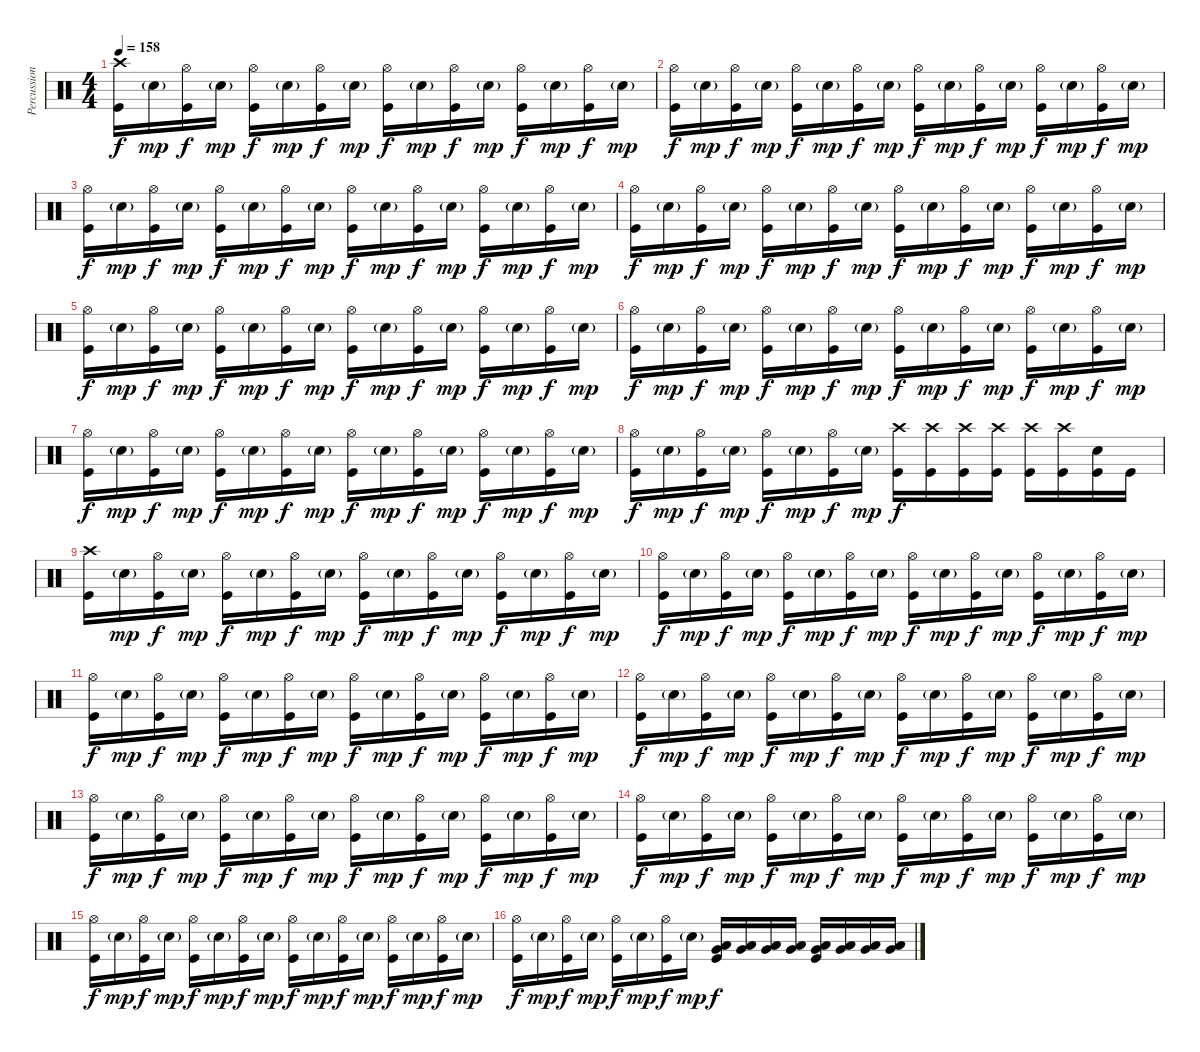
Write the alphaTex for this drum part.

\track ("Percussion" "Percussion") {instrument percussion}
\staff {score}
\articulation defaults
\ts (4 4)
\tempo 158
\clef neutral
\ks c
("Crash high (hit)" "Kick (hit)").16{dy f} "Snare (hit) 2"{g}.16{dy mp} ("Hi-Hat (open)" "Kick (hit)").16{dy f} "Snare (hit) 2"{g}.16{dy mp} ("Hi-Hat (open)" "Kick (hit)").16{dy f} "Snare (hit) 2"{g}.16{dy mp} ("Hi-Hat (open)" "Kick (hit)").16{dy f} "Snare (hit) 2"{g}.16{dy mp} ("Hi-Hat (open)" "Kick (hit)").16{dy f} "Snare (hit) 2"{g}.16{dy mp} ("Hi-Hat (open)" "Kick (hit)").16{dy f} "Snare (hit) 2"{g}.16{dy mp} ("Hi-Hat (open)" "Kick (hit)").16{dy f} "Snare (hit) 2"{g}.16{dy mp} ("Hi-Hat (open)" "Kick (hit)").16{dy f} "Snare (hit) 2"{g}.16{dy mp} |
("Hi-Hat (open)" "Kick (hit)").16{dy f} "Snare (hit) 2"{g}.16{dy mp} ("Hi-Hat (open)" "Kick (hit)").16{dy f} "Snare (hit) 2"{g}.16{dy mp} ("Hi-Hat (open)" "Kick (hit)").16{dy f} "Snare (hit) 2"{g}.16{dy mp} ("Hi-Hat (open)" "Kick (hit)").16{dy f} "Snare (hit) 2"{g}.16{dy mp} ("Hi-Hat (open)" "Kick (hit)").16{dy f} "Snare (hit) 2"{g}.16{dy mp} ("Hi-Hat (open)" "Kick (hit)").16{dy f} "Snare (hit) 2"{g}.16{dy mp} ("Hi-Hat (open)" "Kick (hit)").16{dy f} "Snare (hit) 2"{g}.16{dy mp} ("Hi-Hat (open)" "Kick (hit)").16{dy f} "Snare (hit) 2"{g}.16{dy mp} |
("Hi-Hat (open)" "Kick (hit)").16{dy f} "Snare (hit) 2"{g}.16{dy mp} ("Hi-Hat (open)" "Kick (hit)").16{dy f} "Snare (hit) 2"{g}.16{dy mp} ("Hi-Hat (open)" "Kick (hit)").16{dy f} "Snare (hit) 2"{g}.16{dy mp} ("Hi-Hat (open)" "Kick (hit)").16{dy f} "Snare (hit) 2"{g}.16{dy mp} ("Hi-Hat (open)" "Kick (hit)").16{dy f} "Snare (hit) 2"{g}.16{dy mp} ("Hi-Hat (open)" "Kick (hit)").16{dy f} "Snare (hit) 2"{g}.16{dy mp} ("Hi-Hat (open)" "Kick (hit)").16{dy f} "Snare (hit) 2"{g}.16{dy mp} ("Hi-Hat (open)" "Kick (hit)").16{dy f} "Snare (hit) 2"{g}.16{dy mp} |
("Hi-Hat (open)" "Kick (hit)").16{dy f} "Snare (hit) 2"{g}.16{dy mp} ("Hi-Hat (open)" "Kick (hit)").16{dy f} "Snare (hit) 2"{g}.16{dy mp} ("Hi-Hat (open)" "Kick (hit)").16{dy f} "Snare (hit) 2"{g}.16{dy mp} ("Hi-Hat (open)" "Kick (hit)").16{dy f} "Snare (hit) 2"{g}.16{dy mp} ("Hi-Hat (open)" "Kick (hit)").16{dy f} "Snare (hit) 2"{g}.16{dy mp} ("Hi-Hat (open)" "Kick (hit)").16{dy f} "Snare (hit) 2"{g}.16{dy mp} ("Hi-Hat (open)" "Kick (hit)").16{dy f} "Snare (hit) 2"{g}.16{dy mp} ("Hi-Hat (open)" "Kick (hit)").16{dy f} "Snare (hit) 2"{g}.16{dy mp} |
("Hi-Hat (open)" "Kick (hit)").16{dy f} "Snare (hit) 2"{g}.16{dy mp} ("Hi-Hat (open)" "Kick (hit)").16{dy f} "Snare (hit) 2"{g}.16{dy mp} ("Hi-Hat (open)" "Kick (hit)").16{dy f} "Snare (hit) 2"{g}.16{dy mp} ("Hi-Hat (open)" "Kick (hit)").16{dy f} "Snare (hit) 2"{g}.16{dy mp} ("Hi-Hat (open)" "Kick (hit)").16{dy f} "Snare (hit) 2"{g}.16{dy mp} ("Hi-Hat (open)" "Kick (hit)").16{dy f} "Snare (hit) 2"{g}.16{dy mp} ("Hi-Hat (open)" "Kick (hit)").16{dy f} "Snare (hit) 2"{g}.16{dy mp} ("Hi-Hat (open)" "Kick (hit)").16{dy f} "Snare (hit) 2"{g}.16{dy mp} |
("Hi-Hat (open)" "Kick (hit)").16{dy f} "Snare (hit) 2"{g}.16{dy mp} ("Hi-Hat (open)" "Kick (hit)").16{dy f} "Snare (hit) 2"{g}.16{dy mp} ("Hi-Hat (open)" "Kick (hit)").16{dy f} "Snare (hit) 2"{g}.16{dy mp} ("Hi-Hat (open)" "Kick (hit)").16{dy f} "Snare (hit) 2"{g}.16{dy mp} ("Hi-Hat (open)" "Kick (hit)").16{dy f} "Snare (hit) 2"{g}.16{dy mp} ("Hi-Hat (open)" "Kick (hit)").16{dy f} "Snare (hit) 2"{g}.16{dy mp} ("Hi-Hat (open)" "Kick (hit)").16{dy f} "Snare (hit) 2"{g}.16{dy mp} ("Hi-Hat (open)" "Kick (hit)").16{dy f} "Snare (hit) 2"{g}.16{dy mp} |
("Hi-Hat (open)" "Kick (hit)").16{dy f} "Snare (hit) 2"{g}.16{dy mp} ("Hi-Hat (open)" "Kick (hit)").16{dy f} "Snare (hit) 2"{g}.16{dy mp} ("Hi-Hat (open)" "Kick (hit)").16{dy f} "Snare (hit) 2"{g}.16{dy mp} ("Hi-Hat (open)" "Kick (hit)").16{dy f} "Snare (hit) 2"{g}.16{dy mp} ("Hi-Hat (open)" "Kick (hit)").16{dy f} "Snare (hit) 2"{g}.16{dy mp} ("Hi-Hat (open)" "Kick (hit)").16{dy f} "Snare (hit) 2"{g}.16{dy mp} ("Hi-Hat (open)" "Kick (hit)").16{dy f} "Snare (hit) 2"{g}.16{dy mp} ("Hi-Hat (open)" "Kick (hit)").16{dy f} "Snare (hit) 2"{g}.16{dy mp} |
("Hi-Hat (open)" "Kick (hit)").16{dy f} "Snare (hit) 2"{g}.16{dy mp} ("Hi-Hat (open)" "Kick (hit)").16{dy f} "Snare (hit) 2"{g}.16{dy mp} ("Hi-Hat (open)" "Kick (hit)").16{dy f} "Snare (hit) 2"{g}.16{dy mp} ("Hi-Hat (open)" "Kick (hit)").16{dy f} "Snare (hit) 2"{g}.16{dy mp} ("Crash high (hit)" "Kick (hit)").16{dy f} ("Crash high (hit)" "Kick (hit)").16 ("Crash high (hit)" "Kick (hit)").16 ("Crash high (hit)" "Kick (hit)").16 ("Crash high (hit)" "Kick (hit)").16 ("Crash high (hit)" "Kick (hit)").16 ("Snare (hit) 2" "Kick (hit)").16 "Kick (hit)".16 |
("Crash high (hit)" "Kick (hit)").16 "Snare (hit) 2"{g}.16{dy mp} ("Hi-Hat (open)" "Kick (hit)").16{dy f} "Snare (hit) 2"{g}.16{dy mp} ("Hi-Hat (open)" "Kick (hit)").16{dy f} "Snare (hit) 2"{g}.16{dy mp} ("Hi-Hat (open)" "Kick (hit)").16{dy f} "Snare (hit) 2"{g}.16{dy mp} ("Hi-Hat (open)" "Kick (hit)").16{dy f} "Snare (hit) 2"{g}.16{dy mp} ("Hi-Hat (open)" "Kick (hit)").16{dy f} "Snare (hit) 2"{g}.16{dy mp} ("Hi-Hat (open)" "Kick (hit)").16{dy f} "Snare (hit) 2"{g}.16{dy mp} ("Hi-Hat (open)" "Kick (hit)").16{dy f} "Snare (hit) 2"{g}.16{dy mp} |
("Hi-Hat (open)" "Kick (hit)").16{dy f} "Snare (hit) 2"{g}.16{dy mp} ("Hi-Hat (open)" "Kick (hit)").16{dy f} "Snare (hit) 2"{g}.16{dy mp} ("Hi-Hat (open)" "Kick (hit)").16{dy f} "Snare (hit) 2"{g}.16{dy mp} ("Hi-Hat (open)" "Kick (hit)").16{dy f} "Snare (hit) 2"{g}.16{dy mp} ("Hi-Hat (open)" "Kick (hit)").16{dy f} "Snare (hit) 2"{g}.16{dy mp} ("Hi-Hat (open)" "Kick (hit)").16{dy f} "Snare (hit) 2"{g}.16{dy mp} ("Hi-Hat (open)" "Kick (hit)").16{dy f} "Snare (hit) 2"{g}.16{dy mp} ("Hi-Hat (open)" "Kick (hit)").16{dy f} "Snare (hit) 2"{g}.16{dy mp} |
("Hi-Hat (open)" "Kick (hit)").16{dy f} "Snare (hit) 2"{g}.16{dy mp} ("Hi-Hat (open)" "Kick (hit)").16{dy f} "Snare (hit) 2"{g}.16{dy mp} ("Hi-Hat (open)" "Kick (hit)").16{dy f} "Snare (hit) 2"{g}.16{dy mp} ("Hi-Hat (open)" "Kick (hit)").16{dy f} "Snare (hit) 2"{g}.16{dy mp} ("Hi-Hat (open)" "Kick (hit)").16{dy f} "Snare (hit) 2"{g}.16{dy mp} ("Hi-Hat (open)" "Kick (hit)").16{dy f} "Snare (hit) 2"{g}.16{dy mp} ("Hi-Hat (open)" "Kick (hit)").16{dy f} "Snare (hit) 2"{g}.16{dy mp} ("Hi-Hat (open)" "Kick (hit)").16{dy f} "Snare (hit) 2"{g}.16{dy mp} |
("Hi-Hat (open)" "Kick (hit)").16{dy f} "Snare (hit) 2"{g}.16{dy mp} ("Hi-Hat (open)" "Kick (hit)").16{dy f} "Snare (hit) 2"{g}.16{dy mp} ("Hi-Hat (open)" "Kick (hit)").16{dy f} "Snare (hit) 2"{g}.16{dy mp} ("Hi-Hat (open)" "Kick (hit)").16{dy f} "Snare (hit) 2"{g}.16{dy mp} ("Hi-Hat (open)" "Kick (hit)").16{dy f} "Snare (hit) 2"{g}.16{dy mp} ("Hi-Hat (open)" "Kick (hit)").16{dy f} "Snare (hit) 2"{g}.16{dy mp} ("Hi-Hat (open)" "Kick (hit)").16{dy f} "Snare (hit) 2"{g}.16{dy mp} ("Hi-Hat (open)" "Kick (hit)").16{dy f} "Snare (hit) 2"{g}.16{dy mp} |
("Hi-Hat (open)" "Kick (hit)").16{dy f} "Snare (hit) 2"{g}.16{dy mp} ("Hi-Hat (open)" "Kick (hit)").16{dy f} "Snare (hit) 2"{g}.16{dy mp} ("Hi-Hat (open)" "Kick (hit)").16{dy f} "Snare (hit) 2"{g}.16{dy mp} ("Hi-Hat (open)" "Kick (hit)").16{dy f} "Snare (hit) 2"{g}.16{dy mp} ("Hi-Hat (open)" "Kick (hit)").16{dy f} "Snare (hit) 2"{g}.16{dy mp} ("Hi-Hat (open)" "Kick (hit)").16{dy f} "Snare (hit) 2"{g}.16{dy mp} ("Hi-Hat (open)" "Kick (hit)").16{dy f} "Snare (hit) 2"{g}.16{dy mp} ("Hi-Hat (open)" "Kick (hit)").16{dy f} "Snare (hit) 2"{g}.16{dy mp} |
("Hi-Hat (open)" "Kick (hit)").16{dy f} "Snare (hit) 2"{g}.16{dy mp} ("Hi-Hat (open)" "Kick (hit)").16{dy f} "Snare (hit) 2"{g}.16{dy mp} ("Hi-Hat (open)" "Kick (hit)").16{dy f} "Snare (hit) 2"{g}.16{dy mp} ("Hi-Hat (open)" "Kick (hit)").16{dy f} "Snare (hit) 2"{g}.16{dy mp} ("Hi-Hat (open)" "Kick (hit)").16{dy f} "Snare (hit) 2"{g}.16{dy mp} ("Hi-Hat (open)" "Kick (hit)").16{dy f} "Snare (hit) 2"{g}.16{dy mp} ("Hi-Hat (open)" "Kick (hit)").16{dy f} "Snare (hit) 2"{g}.16{dy mp} ("Hi-Hat (open)" "Kick (hit)").16{dy f} "Snare (hit) 2"{g}.16{dy mp} |
("Hi-Hat (open)" "Kick (hit)").16{dy f} "Snare (hit) 2"{g}.16{dy mp} ("Hi-Hat (open)" "Kick (hit)").16{dy f} "Snare (hit) 2"{g}.16{dy mp} ("Hi-Hat (open)" "Kick (hit)").16{dy f} "Snare (hit) 2"{g}.16{dy mp} ("Hi-Hat (open)" "Kick (hit)").16{dy f} "Snare (hit) 2"{g}.16{dy mp} ("Hi-Hat (open)" "Kick (hit)").16{dy f} "Snare (hit) 2"{g}.16{dy mp} ("Hi-Hat (open)" "Kick (hit)").16{dy f} "Snare (hit) 2"{g}.16{dy mp} ("Hi-Hat (open)" "Kick (hit)").16{dy f} "Snare (hit) 2"{g}.16{dy mp} ("Hi-Hat (open)" "Kick (hit)").16{dy f} "Snare (hit) 2"{g}.16{dy mp} |
("Hi-Hat (open)" "Kick (hit)").16{dy f} "Snare (hit) 2"{g}.16{dy mp} ("Hi-Hat (open)" "Kick (hit)").16{dy f} "Snare (hit) 2"{g}.16{dy mp} ("Hi-Hat (open)" "Kick (hit)").16{dy f} "Snare (hit) 2"{g}.16{dy mp} ("Hi-Hat (open)" "Kick (hit)").16{dy f} "Snare (hit) 2"{g}.16{dy mp} ("Low Tom (hit)" "Very Low Tom (hit)" "Kick (hit)").16{dy f} ("Low Tom (hit)" "Very Low Tom (hit)").16 ("Low Tom (hit)" "Very Low Tom (hit)").16 ("Low Tom (hit)" "Very Low Tom (hit)").16 ("Very Low Tom (hit)" "Low Floor Tom (hit)" "Kick (hit)").16 ("Very Low Tom (hit)" "Low Floor Tom (hit)").16 ("Very Low Tom (hit)" "Low Floor Tom (hit)").16 ("Very Low Tom (hit)" "Low Floor Tom (hit)").16
